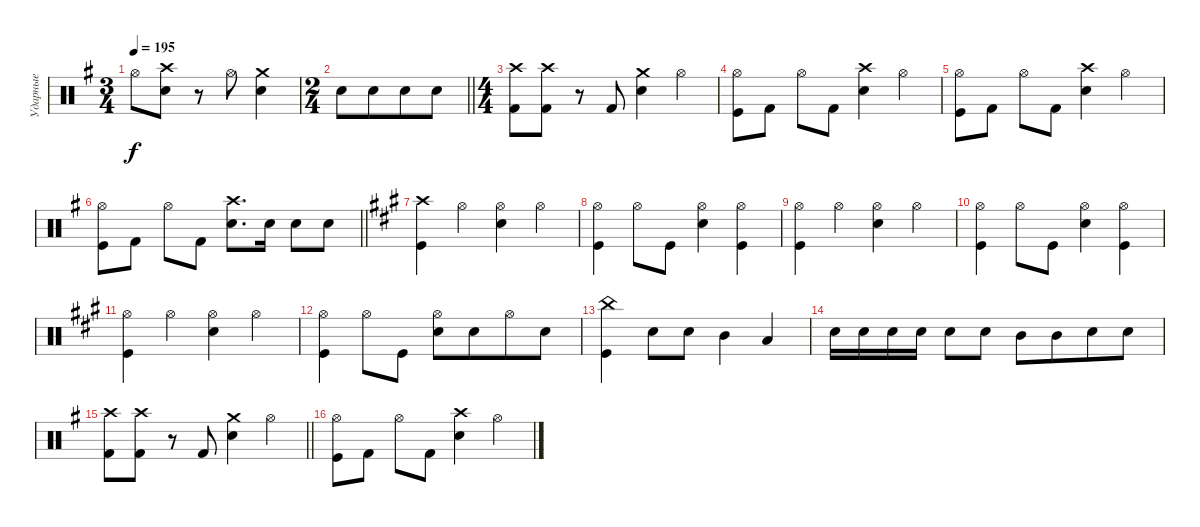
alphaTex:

\track ("Ударные" "Ударные") {instrument percussion}
\staff {score}
\articulation defaults
\ts (3 4)
\tempo 195
\clef neutral
\ks eminor "Hi-Hat (open)".8{dy f}
("Snare (hit) 2" "Crash high (hit)").8 r.8 "Hi-Hat (open)".8 ("Snare (hit) 2" "Crash medium (hit)").4 |
\ts (2 4)
\barLineRight lightlight "Snare (hit) 2".8 "Snare (hit) 2".8{beam merge} "Snare (hit) 2".8 "Snare (hit) 2".8
|
\ts (4 4)
\section ("" "")
("Kick (hit) 2" "Crash high (hit)").8 ("Kick (hit) 2" "Crash high (hit)").8 r.8 "Kick (hit) 2".8 ("Snare (hit) 2" "Crash medium (hit)").4 "Hi-Hat (open)".4 |
("Kick (hit)" "Hi-Hat (open)").8 "Kick (hit) 2".8 "Hi-Hat (open)".8 "Kick (hit) 2".8 ("Snare (hit) 2" "Crash high (hit)").4 "Hi-Hat (open)".4 |
("Kick (hit)" "Hi-Hat (open)").8 "Kick (hit) 2".8 "Hi-Hat (open)".8 "Kick (hit) 2".8 ("Snare (hit) 2" "Crash high (hit)").4 "Hi-Hat (open)".4 |
\barLineRight lightlight
("Kick (hit)" "Hi-Hat (open)").8 "Kick (hit) 2".8 "Hi-Hat (open)".8 "Kick (hit) 2".8 ("Snare (hit) 2" "Crash high (hit)").8{d} "Snare (hit) 2".16 "Snare (hit) 2".8 "Snare (hit) 2".8 |
\section ("" "")
\ks f#minor
("Kick (hit)" "Crash high (hit)").4 "Hi-Hat (open)".4 ("Snare (hit) 2" "Hi-Hat (open)").4 "Hi-Hat (open)".4 |
("Kick (hit)" "Hi-Hat (open)").4 "Hi-Hat (open)".8 "Kick (hit)".8 ("Snare (hit) 2" "Hi-Hat (open)").4 ("Kick (hit)" "Hi-Hat (open)").4 |
("Kick (hit)" "Hi-Hat (open)").4 "Hi-Hat (open)".4 ("Snare (hit) 2" "Hi-Hat (open)").4 "Hi-Hat (open)".4 |
("Kick (hit)" "Hi-Hat (open)").4 "Hi-Hat (open)".8 "Kick (hit)".8 ("Snare (hit) 2" "Hi-Hat (open)").4 ("Kick (hit)" "Hi-Hat (open)").4 |
("Kick (hit)" "Hi-Hat (open)").4 "Hi-Hat (open)".4 ("Snare (hit) 2" "Hi-Hat (open)").4 "Hi-Hat (open)".4 |
("Kick (hit)" "Hi-Hat (open)").4 "Hi-Hat (open)".8 "Kick (hit)".8 ("Snare (hit) 2" "Hi-Hat (open)").8 "Snare (hit) 2".8{beam merge} "Hi-Hat (open)".8 "Snare (hit) 2".8 |
("Kick (hit)" "China (hit)").4 "Snare (hit) 2".8 "Snare (hit) 2".8 "Mid Tom (hit)".4 "Low Tom (hit)".4 |
"Snare (hit) 2".16 "Snare (hit) 2".16 "Snare (hit) 2".16 "Snare (hit) 2".16 "Snare (hit) 2".8 "Snare (hit) 2".8 "Mid Tom (hit)".8 "Mid Tom (hit)".8{beam merge} "Snare (hit) 2".8 "Snare (hit) 2".8 |
\barLineRight lightlight
\ks eminor
("Kick (hit) 2" "Crash high (hit)").8 ("Kick (hit) 2" "Crash high (hit)").8 r.8 "Kick (hit) 2".8 ("Snare (hit) 2" "Crash medium (hit)").4 "Hi-Hat (open)".4 |
\section ("" "")
("Kick (hit)" "Hi-Hat (open)").8 "Kick (hit) 2".8 "Hi-Hat (open)".8 "Kick (hit) 2".8 ("Snare (hit) 2" "Crash high (hit)").4 "Hi-Hat (open)".4
